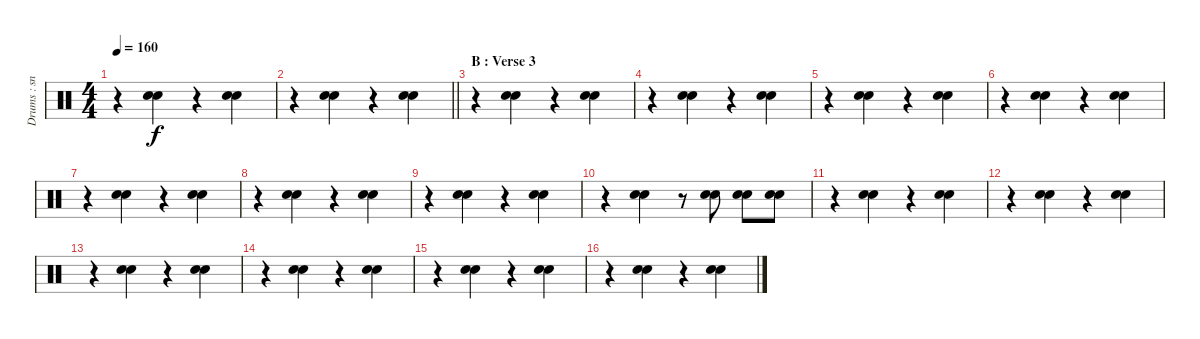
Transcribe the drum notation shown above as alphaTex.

\track ("Drums : snare" "Drums : sn") {instrument percussion}
\staff {score}
\articulation defaults
\ts (4 4)
\tempo 160
\clef neutral
\ks c
r.4{dy f} ("Snare (hit) 2" "Electric Snare (hit)").4 r.4 ("Snare (hit) 2" "Electric Snare (hit)").4 |
\barLineRight lightlight
r.4 ("Snare (hit) 2" "Electric Snare (hit)").4 r.4 ("Snare (hit) 2" "Electric Snare (hit)").4 |
\section ("" "B : Verse 3")
r.4 ("Snare (hit) 2" "Electric Snare (hit)").4 r.4 ("Snare (hit) 2" "Electric Snare (hit)").4 |
r.4 ("Snare (hit) 2" "Electric Snare (hit)").4 r.4 ("Snare (hit) 2" "Electric Snare (hit)").4 |
r.4 ("Snare (hit) 2" "Electric Snare (hit)").4 r.4 ("Snare (hit) 2" "Electric Snare (hit)").4 |
r.4 ("Snare (hit) 2" "Electric Snare (hit)").4 r.4 ("Snare (hit) 2" "Electric Snare (hit)").4 |
r.4 ("Snare (hit) 2" "Electric Snare (hit)").4 r.4 ("Snare (hit) 2" "Electric Snare (hit)").4 |
r.4 ("Snare (hit) 2" "Electric Snare (hit)").4 r.4 ("Snare (hit) 2" "Electric Snare (hit)").4 |
r.4 ("Snare (hit) 2" "Electric Snare (hit)").4 r.4 ("Snare (hit) 2" "Electric Snare (hit)").4 |
r.4 ("Snare (hit) 2" "Electric Snare (hit)").4 r.8 ("Snare (hit) 2" "Electric Snare (hit)").8 ("Snare (hit) 2" "Electric Snare (hit)").8 ("Snare (hit) 2" "Electric Snare (hit)").8 |
r.4 ("Snare (hit) 2" "Electric Snare (hit)").4 r.4 ("Snare (hit) 2" "Electric Snare (hit)").4 |
r.4 ("Snare (hit) 2" "Electric Snare (hit)").4 r.4 ("Snare (hit) 2" "Electric Snare (hit)").4 |
r.4 ("Snare (hit) 2" "Electric Snare (hit)").4 r.4 ("Snare (hit) 2" "Electric Snare (hit)").4 |
r.4 ("Snare (hit) 2" "Electric Snare (hit)").4 r.4 ("Snare (hit) 2" "Electric Snare (hit)").4 |
r.4 ("Snare (hit) 2" "Electric Snare (hit)").4 r.4 ("Snare (hit) 2" "Electric Snare (hit)").4 |
r.4 ("Snare (hit) 2" "Electric Snare (hit)").4 r.4 ("Snare (hit) 2" "Electric Snare (hit)").4
